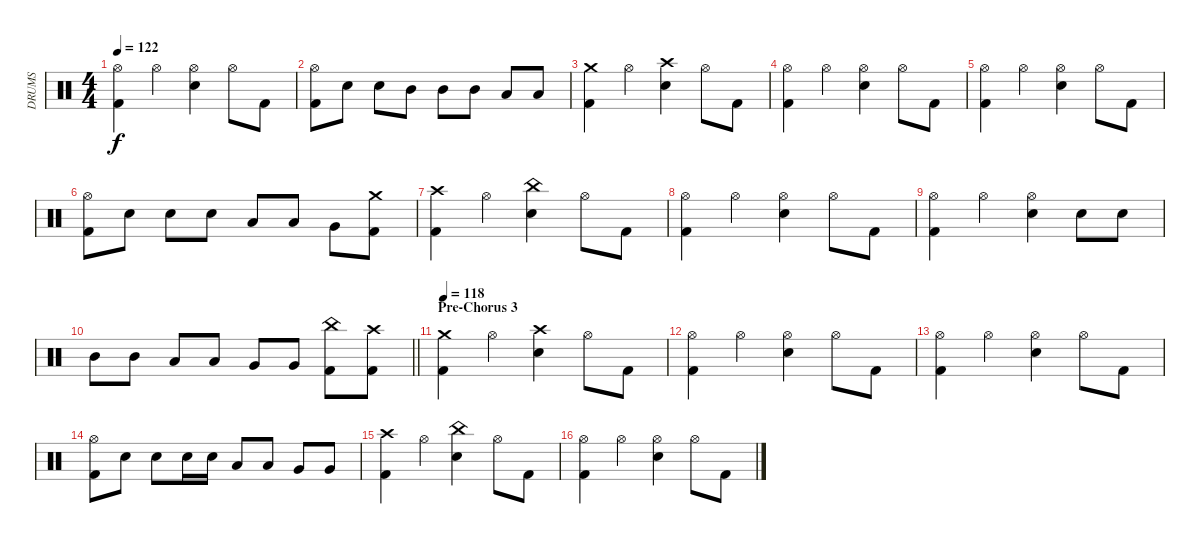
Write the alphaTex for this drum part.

\track ("DRUMS" "DRUMS") {instrument percussion}
\staff {score}
\articulation defaults
\ts (4 4)
\tempo 122
\clef neutral
\ks c
("Hi-Hat (open)" "Kick (hit) 2").4{dy f} "Hi-Hat (open)".4 ("Hi-Hat (open)" "Snare (hit) 2").4 "Hi-Hat (open)".8 "Kick (hit) 2".8 |
("Hi-Hat (open)" "Kick (hit) 2").8 "Snare (hit) 2".8 "Snare (hit) 2".8 "Mid Tom (hit)".8 "Mid Tom (hit)".8 "Mid Tom (hit)".8 "Low Tom (hit)".8 "Low Tom (hit)".8 |
("Crash medium (hit)" "Kick (hit) 2").4 "Hi-Hat (open)".4 ("Crash high (hit)" "Snare (hit) 2").4 "Hi-Hat (open)".8 "Kick (hit) 2".8 |
("Hi-Hat (open)" "Kick (hit) 2").4 "Hi-Hat (open)".4 ("Hi-Hat (open)" "Snare (hit) 2").4 "Hi-Hat (open)".8 "Kick (hit) 2".8 |
("Hi-Hat (open)" "Kick (hit) 2").4 "Hi-Hat (open)".4 ("Hi-Hat (open)" "Snare (hit) 2").4 "Hi-Hat (open)".8 "Kick (hit) 2".8 |
("Hi-Hat (open)" "Kick (hit) 2").8 "Snare (hit) 2".8 "Snare (hit) 2".8 "Snare (hit) 2".8 "Low Tom (hit)".8 "Low Tom (hit)".8 "Very Low Tom (hit)".8 ("Crash medium (hit)" "Kick (hit) 2").8 |
("Crash high (hit)" "Kick (hit) 2").4 "Hi-Hat (open)".4 ("China (hit)" "Snare (hit) 2").4 "Hi-Hat (open)".8 "Kick (hit) 2".8 |
("Hi-Hat (open)" "Kick (hit) 2").4 "Hi-Hat (open)".4 ("Hi-Hat (open)" "Snare (hit) 2").4 "Hi-Hat (open)".8 "Kick (hit) 2".8 |
("Hi-Hat (open)" "Kick (hit) 2").4 "Hi-Hat (open)".4 ("Hi-Hat (open)" "Snare (hit) 2").4 "Snare (hit) 2".8 "Snare (hit) 2".8 |
\barLineRight lightlight "Mid Tom (hit)".8 "Mid Tom (hit)".8 "Low Tom (hit)".8 "Low Tom (hit)".8 "Very Low Tom (hit)".8 "Very Low Tom (hit)".8
("China (hit)" "Kick (hit) 2").8 ("Crash high (hit)" "Kick (hit) 2").8 |
\section ("" "Pre-Chorus 3")
\tempo 118
("Crash medium (hit)" "Kick (hit) 2").4 "Hi-Hat (open)".4 ("Crash high (hit)" "Snare (hit) 2").4 "Hi-Hat (open)".8 "Kick (hit) 2".8 |
("Hi-Hat (open)" "Kick (hit) 2").4 "Hi-Hat (open)".4 ("Hi-Hat (open)" "Snare (hit) 2").4 "Hi-Hat (open)".8 "Kick (hit) 2".8 |
("Hi-Hat (open)" "Kick (hit) 2").4 "Hi-Hat (open)".4 ("Hi-Hat (open)" "Snare (hit) 2").4 "Hi-Hat (open)".8 "Kick (hit) 2".8 |
("Hi-Hat (open)" "Kick (hit) 2").8 "Snare (hit) 2".8 "Snare (hit) 2".8 "Snare (hit) 2".16 "Snare (hit) 2".16 "Low Tom (hit)".8 "Low Tom (hit)".8 "Very Low Tom (hit)".8 "Very Low Tom (hit)".8 |
("Crash high (hit)" "Kick (hit) 2").4 "Hi-Hat (open)".4 ("China (hit)" "Snare (hit) 2").4 "Hi-Hat (open)".8 "Kick (hit) 2".8 |
("Hi-Hat (open)" "Kick (hit) 2").4 "Hi-Hat (open)".4 ("Hi-Hat (open)" "Snare (hit) 2").4 "Hi-Hat (open)".8 "Kick (hit) 2".8
